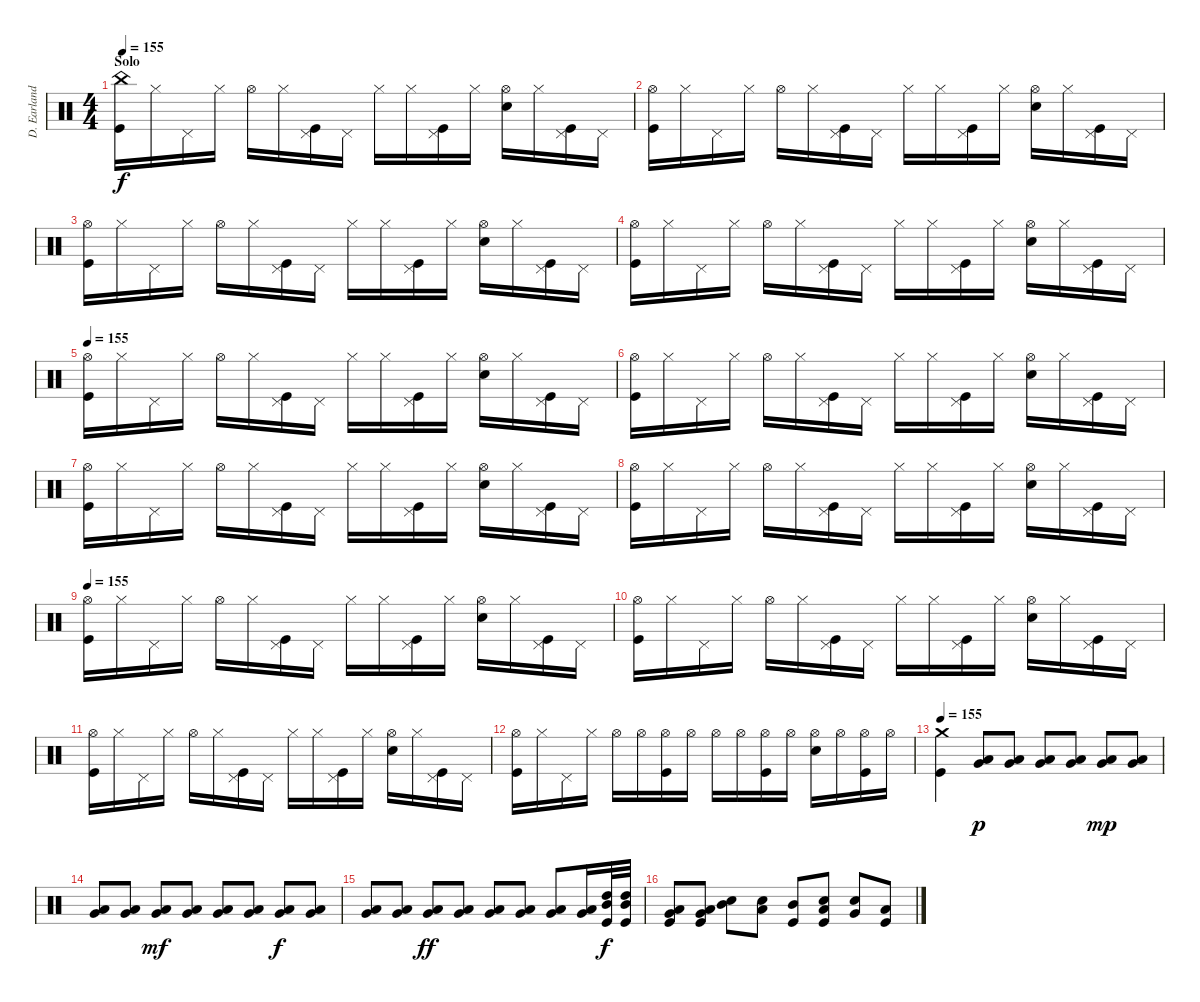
\track ("D. Earlanddson" "D. Earland") {instrument percussion}
\staff {score}
\articulation defaults
\ts (4 4)
\section ("" "Solo")
\tempo 155
\clef neutral
\ks c
("China (hit)" "Kick (hit)").16{dy f} "Hi-Hat (closed)".16 "Pedal Hi-Hat (hit)".16 "Hi-Hat (closed)".16 "Hi-Hat (open)".16 "Hi-Hat (closed)".16 ("Pedal Hi-Hat (hit)" "Kick (hit)").16 "Pedal Hi-Hat (hit)".16 "Hi-Hat (closed)".16 "Hi-Hat (closed)".16 ("Pedal Hi-Hat (hit)" "Kick (hit)").16 "Hi-Hat (closed)".16 ("Hi-Hat (open)" "Electric Snare (hit)").16 "Hi-Hat (closed)".16 ("Pedal Hi-Hat (hit)" "Kick (hit)").16 "Pedal Hi-Hat (hit)".16 |
("Hi-Hat (open)" "Kick (hit)").16 "Hi-Hat (closed)".16 "Pedal Hi-Hat (hit)".16 "Hi-Hat (closed)".16 "Hi-Hat (open)".16 "Hi-Hat (closed)".16 ("Pedal Hi-Hat (hit)" "Kick (hit)").16 "Pedal Hi-Hat (hit)".16 "Hi-Hat (closed)".16 "Hi-Hat (closed)".16 ("Pedal Hi-Hat (hit)" "Kick (hit)").16 "Hi-Hat (closed)".16 ("Hi-Hat (open)" "Electric Snare (hit)").16 "Hi-Hat (closed)".16 ("Pedal Hi-Hat (hit)" "Kick (hit)").16 "Pedal Hi-Hat (hit)".16 |
("Hi-Hat (open)" "Kick (hit)").16 "Hi-Hat (closed)".16 "Pedal Hi-Hat (hit)".16 "Hi-Hat (closed)".16 "Hi-Hat (open)".16 "Hi-Hat (closed)".16 ("Pedal Hi-Hat (hit)" "Kick (hit)").16 "Pedal Hi-Hat (hit)".16 "Hi-Hat (closed)".16 "Hi-Hat (closed)".16 ("Pedal Hi-Hat (hit)" "Kick (hit)").16 "Hi-Hat (closed)".16 ("Hi-Hat (open)" "Electric Snare (hit)").16 "Hi-Hat (closed)".16 ("Pedal Hi-Hat (hit)" "Kick (hit)").16 "Pedal Hi-Hat (hit)".16 |
("Hi-Hat (open)" "Kick (hit)").16 "Hi-Hat (closed)".16 "Pedal Hi-Hat (hit)".16 "Hi-Hat (closed)".16 "Hi-Hat (open)".16 "Hi-Hat (closed)".16 ("Pedal Hi-Hat (hit)" "Kick (hit)").16 "Pedal Hi-Hat (hit)".16 "Hi-Hat (closed)".16 "Hi-Hat (closed)".16 ("Pedal Hi-Hat (hit)" "Kick (hit)").16 "Hi-Hat (closed)".16 ("Hi-Hat (open)" "Electric Snare (hit)").16 "Hi-Hat (closed)".16 ("Pedal Hi-Hat (hit)" "Kick (hit)").16 "Pedal Hi-Hat (hit)".16 |
\tempo 155
("Hi-Hat (open)" "Kick (hit)").16 "Hi-Hat (closed)".16 "Pedal Hi-Hat (hit)".16 "Hi-Hat (closed)".16 "Hi-Hat (open)".16 "Hi-Hat (closed)".16 ("Pedal Hi-Hat (hit)" "Kick (hit)").16 "Pedal Hi-Hat (hit)".16 "Hi-Hat (closed)".16 "Hi-Hat (closed)".16 ("Pedal Hi-Hat (hit)" "Kick (hit)").16 "Hi-Hat (closed)".16 ("Hi-Hat (open)" "Electric Snare (hit)").16 "Hi-Hat (closed)".16 ("Pedal Hi-Hat (hit)" "Kick (hit)").16 "Pedal Hi-Hat (hit)".16 |
("Hi-Hat (open)" "Kick (hit)").16 "Hi-Hat (closed)".16 "Pedal Hi-Hat (hit)".16 "Hi-Hat (closed)".16 "Hi-Hat (open)".16 "Hi-Hat (closed)".16 ("Pedal Hi-Hat (hit)" "Kick (hit)").16 "Pedal Hi-Hat (hit)".16 "Hi-Hat (closed)".16 "Hi-Hat (closed)".16 ("Pedal Hi-Hat (hit)" "Kick (hit)").16 "Hi-Hat (closed)".16 ("Hi-Hat (open)" "Electric Snare (hit)").16 "Hi-Hat (closed)".16 ("Pedal Hi-Hat (hit)" "Kick (hit)").16 "Pedal Hi-Hat (hit)".16 |
("Hi-Hat (open)" "Kick (hit)").16 "Hi-Hat (closed)".16 "Pedal Hi-Hat (hit)".16 "Hi-Hat (closed)".16 "Hi-Hat (open)".16 "Hi-Hat (closed)".16 ("Pedal Hi-Hat (hit)" "Kick (hit)").16 "Pedal Hi-Hat (hit)".16 "Hi-Hat (closed)".16 "Hi-Hat (closed)".16 ("Pedal Hi-Hat (hit)" "Kick (hit)").16 "Hi-Hat (closed)".16 ("Hi-Hat (open)" "Electric Snare (hit)").16 "Hi-Hat (closed)".16 ("Pedal Hi-Hat (hit)" "Kick (hit)").16 "Pedal Hi-Hat (hit)".16 |
("Hi-Hat (open)" "Kick (hit)").16 "Hi-Hat (closed)".16 "Pedal Hi-Hat (hit)".16 "Hi-Hat (closed)".16 "Hi-Hat (open)".16 "Hi-Hat (closed)".16 ("Pedal Hi-Hat (hit)" "Kick (hit)").16 "Pedal Hi-Hat (hit)".16 "Hi-Hat (closed)".16 "Hi-Hat (closed)".16 ("Pedal Hi-Hat (hit)" "Kick (hit)").16 "Hi-Hat (closed)".16 ("Hi-Hat (open)" "Electric Snare (hit)").16 "Hi-Hat (closed)".16 ("Pedal Hi-Hat (hit)" "Kick (hit)").16 "Pedal Hi-Hat (hit)".16 |
\tempo 155
("Hi-Hat (open)" "Kick (hit)").16 "Hi-Hat (closed)".16 "Pedal Hi-Hat (hit)".16 "Hi-Hat (closed)".16 "Hi-Hat (open)".16 "Hi-Hat (closed)".16 ("Pedal Hi-Hat (hit)" "Kick (hit)").16 "Pedal Hi-Hat (hit)".16 "Hi-Hat (closed)".16 "Hi-Hat (closed)".16 ("Pedal Hi-Hat (hit)" "Kick (hit)").16 "Hi-Hat (closed)".16 ("Hi-Hat (open)" "Electric Snare (hit)").16 "Hi-Hat (closed)".16 ("Pedal Hi-Hat (hit)" "Kick (hit)").16 "Pedal Hi-Hat (hit)".16 |
("Hi-Hat (open)" "Kick (hit)").16 "Hi-Hat (closed)".16 "Pedal Hi-Hat (hit)".16 "Hi-Hat (closed)".16 "Hi-Hat (open)".16 "Hi-Hat (closed)".16 ("Pedal Hi-Hat (hit)" "Kick (hit)").16 "Pedal Hi-Hat (hit)".16 "Hi-Hat (closed)".16 "Hi-Hat (closed)".16 ("Pedal Hi-Hat (hit)" "Kick (hit)").16 "Hi-Hat (closed)".16 ("Hi-Hat (open)" "Electric Snare (hit)").16 "Hi-Hat (closed)".16 ("Pedal Hi-Hat (hit)" "Kick (hit)").16 "Pedal Hi-Hat (hit)".16 |
("Hi-Hat (open)" "Kick (hit)").16 "Hi-Hat (closed)".16 "Pedal Hi-Hat (hit)".16 "Hi-Hat (closed)".16 "Hi-Hat (open)".16 "Hi-Hat (closed)".16 ("Pedal Hi-Hat (hit)" "Kick (hit)").16 "Pedal Hi-Hat (hit)".16 "Hi-Hat (closed)".16 "Hi-Hat (closed)".16 ("Pedal Hi-Hat (hit)" "Kick (hit)").16 "Hi-Hat (closed)".16 ("Hi-Hat (open)" "Electric Snare (hit)").16 "Hi-Hat (closed)".16 ("Pedal Hi-Hat (hit)" "Kick (hit)").16 "Pedal Hi-Hat (hit)".16 |
("Hi-Hat (open)" "Kick (hit)").16 "Hi-Hat (closed)".16 "Pedal Hi-Hat (hit)".16 "Hi-Hat (closed)".16 "Hi-Hat (open)".16 "Hi-Hat (open)".16 ("Hi-Hat (open)" "Kick (hit)").16 "Hi-Hat (open)".16 "Hi-Hat (open)".16 "Hi-Hat (open)".16 ("Hi-Hat (open)" "Kick (hit)").16 "Hi-Hat (open)".16 ("Hi-Hat (open)" "Electric Snare (hit)").16 "Hi-Hat (open)".16 ("Hi-Hat (open)" "Kick (hit)").16 "Hi-Hat (open)".16 |
\tempo 155
("Crash medium (hit)" "Kick (hit)").4 ("Low Tom (hit)" "Very Low Tom (hit)").8{dy p} ("Low Tom (hit)" "Very Low Tom (hit)").8 ("Low Tom (hit)" "Very Low Tom (hit)").8 ("Low Tom (hit)" "Very Low Tom (hit)").8 ("Low Tom (hit)" "Very Low Tom (hit)").8{dy mp} ("Low Tom (hit)" "Very Low Tom (hit)").8 |
("Low Tom (hit)" "Very Low Tom (hit)").8 ("Low Tom (hit)" "Very Low Tom (hit)").8 ("Low Tom (hit)" "Very Low Tom (hit)").8{dy mf} ("Low Tom (hit)" "Very Low Tom (hit)").8 ("Low Tom (hit)" "Very Low Tom (hit)").8 ("Low Tom (hit)" "Very Low Tom (hit)").8 ("Low Tom (hit)" "Very Low Tom (hit)").8{dy f} ("Low Tom (hit)" "Very Low Tom (hit)").8 |
("Low Tom (hit)" "Very Low Tom (hit)").8 ("Low Tom (hit)" "Very Low Tom (hit)").8 ("Low Tom (hit)" "Very Low Tom (hit)").8{dy ff} ("Low Tom (hit)" "Very Low Tom (hit)").8 ("Low Tom (hit)" "Very Low Tom (hit)").8 ("Low Tom (hit)" "Very Low Tom (hit)").8 ("Low Tom (hit)" "Very Low Tom (hit)").8 ("Low Tom (hit)" "Very Low Tom (hit)").16 ("High Tom (hit)" "Mid Tom (hit)" "Kick (hit)").32{dy f} ("High Tom (hit)" "Mid Tom (hit)" "Kick (hit)").32 |
("Low Tom (hit)" "Very Low Tom (hit)" "Kick (hit)").8 ("Low Tom (hit)" "Very Low Tom (hit)" "Kick (hit)").8 ("Mid Tom (hit)" "Electric Snare (hit)").8 ("Low Tom (hit)" "Electric Snare (hit)").8 ("Mid Tom (hit)" "Kick (hit)").8 ("Low Tom (hit)" "Electric Snare (hit)" "Kick (hit)").8 ("Very Low Tom (hit)" "Electric Snare (hit)").8 ("Low Floor Tom (hit)" "Kick (hit)").8
